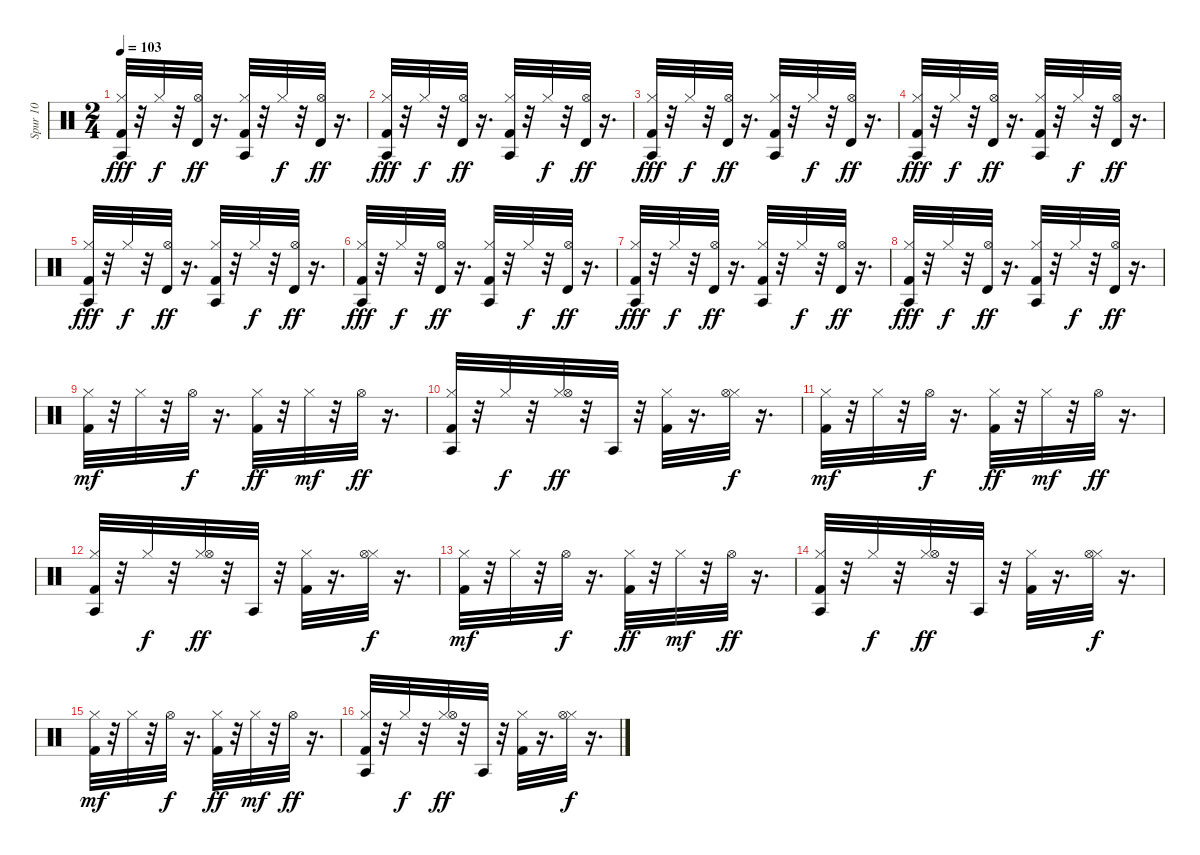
\track ("Spur 10" "Spur 10") {instrument percussion}
\staff {score}
\articulation defaults
\ts (2 4)
\tempo 103
\clef neutral
\ks c
("Kick (hit) 2" "Hi-Hat (closed)" "Agogo tow (hit)").32{dy fff} r.32 "Hi-Hat (closed)".32{dy f} r.32 ("Hi-Hat (open)" "Timbale high (hit)").32{dy ff} r.16{d} ("Kick (hit) 2" "Hi-Hat (closed)" "Agogo tow (hit)").32 r.32 "Hi-Hat (closed)".32{dy f} r.32 ("Hi-Hat (open)" "Timbale high (hit)").32{dy ff} r.16{d} |
("Kick (hit) 2" "Hi-Hat (closed)" "Agogo tow (hit)").32{dy fff} r.32 "Hi-Hat (closed)".32{dy f} r.32 ("Hi-Hat (open)" "Timbale high (hit)").32{dy ff} r.16{d} ("Kick (hit) 2" "Hi-Hat (closed)" "Agogo tow (hit)").32 r.32 "Hi-Hat (closed)".32{dy f} r.32 ("Hi-Hat (open)" "Timbale high (hit)").32{dy ff} r.16{d} |
("Kick (hit) 2" "Hi-Hat (closed)" "Agogo tow (hit)").32{dy fff} r.32 "Hi-Hat (closed)".32{dy f} r.32 ("Hi-Hat (open)" "Timbale high (hit)").32{dy ff} r.16{d} ("Kick (hit) 2" "Hi-Hat (closed)" "Agogo tow (hit)").32 r.32 "Hi-Hat (closed)".32{dy f} r.32 ("Hi-Hat (open)" "Timbale high (hit)").32{dy ff} r.16{d} |
("Kick (hit) 2" "Hi-Hat (closed)" "Agogo tow (hit)").32{dy fff} r.32 "Hi-Hat (closed)".32{dy f} r.32 ("Hi-Hat (open)" "Timbale high (hit)").32{dy ff} r.16{d} ("Kick (hit) 2" "Hi-Hat (closed)" "Agogo tow (hit)").32 r.32 "Hi-Hat (closed)".32{dy f} r.32 ("Hi-Hat (open)" "Timbale high (hit)").32{dy ff} r.16{d} |
("Kick (hit) 2" "Hi-Hat (closed)" "Agogo tow (hit)").32{dy fff} r.32 "Hi-Hat (closed)".32{dy f} r.32 ("Hi-Hat (open)" "Timbale high (hit)").32{dy ff} r.16{d} ("Kick (hit) 2" "Hi-Hat (closed)" "Agogo tow (hit)").32 r.32 "Hi-Hat (closed)".32{dy f} r.32 ("Hi-Hat (open)" "Timbale high (hit)").32{dy ff} r.16{d} |
("Kick (hit) 2" "Hi-Hat (closed)" "Agogo tow (hit)").32{dy fff} r.32 "Hi-Hat (closed)".32{dy f} r.32 ("Hi-Hat (open)" "Timbale high (hit)").32{dy ff} r.16{d} ("Kick (hit) 2" "Hi-Hat (closed)" "Agogo tow (hit)").32 r.32 "Hi-Hat (closed)".32{dy f} r.32 ("Hi-Hat (open)" "Timbale high (hit)").32{dy ff} r.16{d} |
("Kick (hit) 2" "Hi-Hat (closed)" "Agogo tow (hit)").32{dy fff} r.32 "Hi-Hat (closed)".32{dy f} r.32 ("Hi-Hat (open)" "Timbale high (hit)").32{dy ff} r.16{d} ("Kick (hit) 2" "Hi-Hat (closed)" "Agogo tow (hit)").32 r.32 "Hi-Hat (closed)".32{dy f} r.32 ("Hi-Hat (open)" "Timbale high (hit)").32{dy ff} r.16{d} |
("Kick (hit) 2" "Hi-Hat (closed)" "Agogo tow (hit)").32{dy fff} r.32 "Hi-Hat (closed)".32{dy f} r.32 ("Hi-Hat (open)" "Timbale high (hit)").32{dy ff} r.16{d} ("Kick (hit) 2" "Hi-Hat (closed)" "Agogo tow (hit)").32 r.32 "Hi-Hat (closed)".32{dy f} r.32 ("Hi-Hat (open)" "Timbale high (hit)").32{dy ff} r.16{d} |
("Kick (hit) 2" "Hi-Hat (closed)").32{dy mf} r.32 "Hi-Hat (closed)".32 r.32 "Hi-Hat (open)".32{dy f} r.16{d} ("Kick (hit) 2" "Hi-Hat (closed)").32{dy ff} r.32 "Hi-Hat (closed)".32{dy mf} r.32 "Hi-Hat (open)".32{dy ff} r.16{d} |
("Kick (hit) 2" "Hi-Hat (closed)" "Agogo tow (hit)").32 r.32 "Hi-Hat (closed)".32{dy f} r.32 ("Hi-Hat (closed)" "Hi-Hat (open)").32{dy ff} r.32 "Agogo tow (hit)".32 r.32 ("Kick (hit) 2" "Hi-Hat (closed)").32 r.16{d} ("Hi-Hat (closed)" "Hi-Hat (open)").32{dy f} r.16{d} |
("Kick (hit) 2" "Hi-Hat (closed)").32{dy mf} r.32 "Hi-Hat (closed)".32 r.32 "Hi-Hat (open)".32{dy f} r.16{d} ("Kick (hit) 2" "Hi-Hat (closed)").32{dy ff} r.32 "Hi-Hat (closed)".32{dy mf} r.32 "Hi-Hat (open)".32{dy ff} r.16{d} |
("Kick (hit) 2" "Hi-Hat (closed)" "Agogo tow (hit)").32 r.32 "Hi-Hat (closed)".32{dy f} r.32 ("Hi-Hat (closed)" "Hi-Hat (open)").32{dy ff} r.32 "Agogo tow (hit)".32 r.32 ("Kick (hit) 2" "Hi-Hat (closed)").32 r.16{d} ("Hi-Hat (closed)" "Hi-Hat (open)").32{dy f} r.16{d} |
("Kick (hit) 2" "Hi-Hat (closed)").32{dy mf} r.32 "Hi-Hat (closed)".32 r.32 "Hi-Hat (open)".32{dy f} r.16{d} ("Kick (hit) 2" "Hi-Hat (closed)").32{dy ff} r.32 "Hi-Hat (closed)".32{dy mf} r.32 "Hi-Hat (open)".32{dy ff} r.16{d} |
("Kick (hit) 2" "Hi-Hat (closed)" "Agogo tow (hit)").32 r.32 "Hi-Hat (closed)".32{dy f} r.32 ("Hi-Hat (closed)" "Hi-Hat (open)").32{dy ff} r.32 "Agogo tow (hit)".32 r.32 ("Kick (hit) 2" "Hi-Hat (closed)").32 r.16{d} ("Hi-Hat (closed)" "Hi-Hat (open)").32{dy f} r.16{d} |
("Kick (hit) 2" "Hi-Hat (closed)").32{dy mf} r.32 "Hi-Hat (closed)".32 r.32 "Hi-Hat (open)".32{dy f} r.16{d} ("Kick (hit) 2" "Hi-Hat (closed)").32{dy ff} r.32 "Hi-Hat (closed)".32{dy mf} r.32 "Hi-Hat (open)".32{dy ff} r.16{d} |
("Kick (hit) 2" "Hi-Hat (closed)" "Agogo tow (hit)").32 r.32 "Hi-Hat (closed)".32{dy f} r.32 ("Hi-Hat (closed)" "Hi-Hat (open)").32{dy ff} r.32 "Agogo tow (hit)".32 r.32 ("Kick (hit) 2" "Hi-Hat (closed)").32 r.16{d} ("Hi-Hat (closed)" "Hi-Hat (open)").32{dy f} r.16{d}
